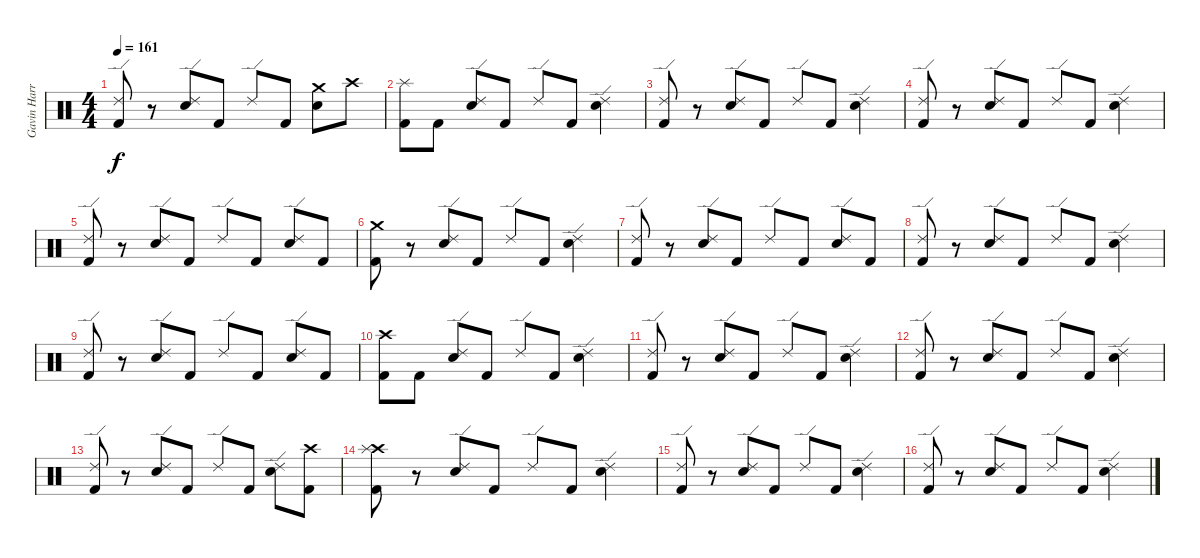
\track ("Gavin Harrison (Drums)" "Gavin Harr") {instrument percussion}
\staff {score}
\articulation defaults
\ts (4 4)
\tempo 161
\clef neutral
\ks c
("Ride (edge) 2" "Kick (hit) 2").8{dy f} r.8 ("Ride (edge) 2" "Electric Snare (hit)").8 "Kick (hit) 2".8 "Ride (edge) 2".8 "Kick (hit) 2".8 ("Crash medium (hit)" "Electric Snare (hit)").8 "Crash high (hit)".8 |
("Splash (hit)" "Kick (hit) 2").8 "Kick (hit) 2".8 ("Ride (edge) 2" "Electric Snare (hit)").8 "Kick (hit) 2".8 "Ride (edge) 2".8 "Kick (hit) 2".8 ("Ride (edge) 2" "Electric Snare (hit)").4 |
("Ride (edge) 2" "Kick (hit) 2").8 r.8 ("Ride (edge) 2" "Electric Snare (hit)").8 "Kick (hit) 2".8 "Ride (edge) 2".8 "Kick (hit) 2".8 ("Ride (edge) 2" "Electric Snare (hit)").4 |
("Ride (edge) 2" "Kick (hit) 2").8 r.8 ("Ride (edge) 2" "Electric Snare (hit)").8 "Kick (hit) 2".8 "Ride (edge) 2".8 "Kick (hit) 2".8 ("Ride (edge) 2" "Electric Snare (hit)").4 |
("Ride (edge) 2" "Kick (hit) 2").8 r.8 ("Ride (edge) 2" "Electric Snare (hit)").8 "Kick (hit) 2".8 "Ride (edge) 2".8 "Kick (hit) 2".8 ("Ride (edge) 2" "Electric Snare (hit)").8 "Kick (hit) 2".8 |
("Crash medium (hit)" "Kick (hit) 2").8 r.8 ("Ride (edge) 2" "Electric Snare (hit)").8 "Kick (hit) 2".8 "Ride (edge) 2".8 "Kick (hit) 2".8 ("Ride (edge) 2" "Electric Snare (hit)").4 |
("Ride (edge) 2" "Kick (hit) 2").8 r.8 ("Ride (edge) 2" "Electric Snare (hit)").8 "Kick (hit) 2".8 "Ride (edge) 2".8 "Kick (hit) 2".8 ("Ride (edge) 2" "Electric Snare (hit)").8 "Kick (hit) 2".8 |
("Ride (edge) 2" "Kick (hit) 2").8 r.8 ("Ride (edge) 2" "Electric Snare (hit)").8 "Kick (hit) 2".8 "Ride (edge) 2".8 "Kick (hit) 2".8 ("Ride (edge) 2" "Electric Snare (hit)").4 |
("Ride (edge) 2" "Kick (hit) 2").8 r.8 ("Ride (edge) 2" "Electric Snare (hit)").8 "Kick (hit) 2".8 "Ride (edge) 2".8 "Kick (hit) 2".8 ("Ride (edge) 2" "Electric Snare (hit)").8 "Kick (hit) 2".8 |
("Crash high (hit)" "Kick (hit) 2").8 "Kick (hit) 2".8 ("Ride (edge) 2" "Electric Snare (hit)").8 "Kick (hit) 2".8 "Ride (edge) 2".8 "Kick (hit) 2".8 ("Ride (edge) 2" "Electric Snare (hit)").4 |
("Ride (edge) 2" "Kick (hit) 2").8 r.8 ("Ride (edge) 2" "Electric Snare (hit)").8 "Kick (hit) 2".8 "Ride (edge) 2".8 "Kick (hit) 2".8 ("Ride (edge) 2" "Electric Snare (hit)").4 |
("Ride (edge) 2" "Kick (hit) 2").8 r.8 ("Ride (edge) 2" "Electric Snare (hit)").8 "Kick (hit) 2".8 "Ride (edge) 2".8 "Kick (hit) 2".8 ("Ride (edge) 2" "Electric Snare (hit)").4 |
("Ride (edge) 2" "Kick (hit) 2").8 r.8 ("Ride (edge) 2" "Electric Snare (hit)").8 "Kick (hit) 2".8 "Ride (edge) 2".8 "Kick (hit) 2".8 ("Ride (edge) 2" "Electric Snare (hit)").8 ("Crash high (hit)" "Kick (hit) 2").8 |
("Crash high (hit)" "Splash (hit)" "Kick (hit) 2").8 r.8 ("Ride (edge) 2" "Electric Snare (hit)").8 "Kick (hit) 2".8 "Ride (edge) 2".8 "Kick (hit) 2".8 ("Ride (edge) 2" "Electric Snare (hit)").4 |
("Ride (edge) 2" "Kick (hit) 2").8 r.8 ("Ride (edge) 2" "Electric Snare (hit)").8 "Kick (hit) 2".8 "Ride (edge) 2".8 "Kick (hit) 2".8 ("Ride (edge) 2" "Electric Snare (hit)").4 |
("Ride (edge) 2" "Kick (hit) 2").8 r.8 ("Ride (edge) 2" "Electric Snare (hit)").8 "Kick (hit) 2".8 "Ride (edge) 2".8 "Kick (hit) 2".8 ("Ride (edge) 2" "Electric Snare (hit)").4
